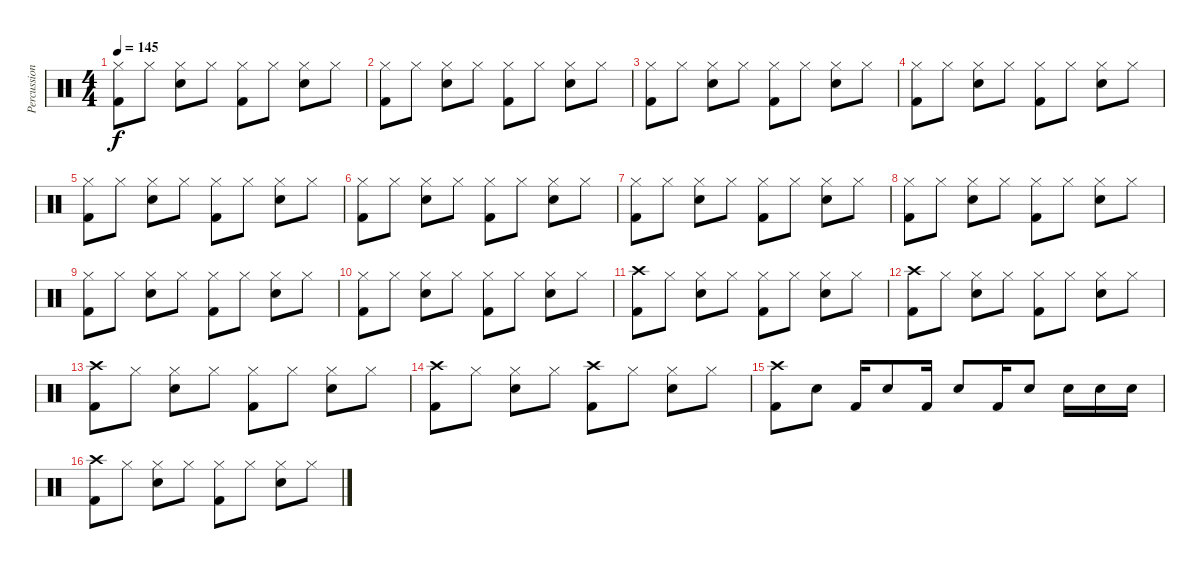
\track ("Percussion" "Percussion") {instrument percussion}
\staff {score}
\articulation defaults
\ts (4 4)
\tempo 145
\clef neutral
\ks c
("Hi-Hat (closed)" "Kick (hit) 2").8{dy f} "Hi-Hat (closed)".8 ("Hi-Hat (closed)" "Snare (hit) 2").8 "Hi-Hat (closed)".8 ("Hi-Hat (closed)" "Kick (hit) 2").8 "Hi-Hat (closed)".8 ("Hi-Hat (closed)" "Snare (hit) 2").8 "Hi-Hat (closed)".8 |
("Hi-Hat (closed)" "Kick (hit) 2").8 "Hi-Hat (closed)".8 ("Hi-Hat (closed)" "Snare (hit) 2").8 "Hi-Hat (closed)".8 ("Hi-Hat (closed)" "Kick (hit) 2").8 "Hi-Hat (closed)".8 ("Hi-Hat (closed)" "Snare (hit) 2").8 "Hi-Hat (closed)".8 |
("Hi-Hat (closed)" "Kick (hit) 2").8 "Hi-Hat (closed)".8 ("Hi-Hat (closed)" "Snare (hit) 2").8 "Hi-Hat (closed)".8 ("Hi-Hat (closed)" "Kick (hit) 2").8 "Hi-Hat (closed)".8 ("Hi-Hat (closed)" "Snare (hit) 2").8 "Hi-Hat (closed)".8 |
("Hi-Hat (closed)" "Kick (hit) 2").8 "Hi-Hat (closed)".8 ("Hi-Hat (closed)" "Snare (hit) 2").8 "Hi-Hat (closed)".8 ("Hi-Hat (closed)" "Kick (hit) 2").8 "Hi-Hat (closed)".8 ("Hi-Hat (closed)" "Snare (hit) 2").8 "Hi-Hat (closed)".8 |
("Hi-Hat (closed)" "Kick (hit) 2").8 "Hi-Hat (closed)".8 ("Hi-Hat (closed)" "Snare (hit) 2").8 "Hi-Hat (closed)".8 ("Hi-Hat (closed)" "Kick (hit) 2").8 "Hi-Hat (closed)".8 ("Hi-Hat (closed)" "Snare (hit) 2").8 "Hi-Hat (closed)".8 |
("Hi-Hat (closed)" "Kick (hit) 2").8 "Hi-Hat (closed)".8 ("Hi-Hat (closed)" "Snare (hit) 2").8 "Hi-Hat (closed)".8 ("Hi-Hat (closed)" "Kick (hit) 2").8 "Hi-Hat (closed)".8 ("Hi-Hat (closed)" "Snare (hit) 2").8 "Hi-Hat (closed)".8 |
("Hi-Hat (closed)" "Kick (hit) 2").8 "Hi-Hat (closed)".8 ("Hi-Hat (closed)" "Snare (hit) 2").8 "Hi-Hat (closed)".8 ("Hi-Hat (closed)" "Kick (hit) 2").8 "Hi-Hat (closed)".8 ("Hi-Hat (closed)" "Snare (hit) 2").8 "Hi-Hat (closed)".8 |
("Hi-Hat (closed)" "Kick (hit) 2").8 "Hi-Hat (closed)".8 ("Hi-Hat (closed)" "Snare (hit) 2").8 "Hi-Hat (closed)".8 ("Hi-Hat (closed)" "Kick (hit) 2").8 "Hi-Hat (closed)".8 ("Hi-Hat (closed)" "Snare (hit) 2").8 "Hi-Hat (closed)".8 |
("Hi-Hat (closed)" "Kick (hit) 2").8 "Hi-Hat (closed)".8 ("Hi-Hat (closed)" "Snare (hit) 2").8 "Hi-Hat (closed)".8 ("Hi-Hat (closed)" "Kick (hit) 2").8 "Hi-Hat (closed)".8 ("Hi-Hat (closed)" "Snare (hit) 2").8 "Hi-Hat (closed)".8 |
("Hi-Hat (closed)" "Kick (hit) 2").8 "Hi-Hat (closed)".8 ("Hi-Hat (closed)" "Snare (hit) 2").8 "Hi-Hat (closed)".8 ("Hi-Hat (closed)" "Kick (hit) 2").8 "Hi-Hat (closed)".8 ("Hi-Hat (closed)" "Snare (hit) 2").8 "Hi-Hat (closed)".8 |
("Crash high (hit)" "Kick (hit) 2").8 "Hi-Hat (closed)".8 ("Hi-Hat (closed)" "Snare (hit) 2").8 "Hi-Hat (closed)".8 ("Hi-Hat (closed)" "Kick (hit) 2").8 "Hi-Hat (closed)".8 ("Hi-Hat (closed)" "Snare (hit) 2").8 "Hi-Hat (closed)".8 |
("Crash high (hit)" "Kick (hit) 2").8 "Hi-Hat (closed)".8 ("Hi-Hat (closed)" "Snare (hit) 2").8 "Hi-Hat (closed)".8 ("Hi-Hat (closed)" "Kick (hit) 2").8 "Hi-Hat (closed)".8 ("Hi-Hat (closed)" "Snare (hit) 2").8 "Hi-Hat (closed)".8 |
("Crash high (hit)" "Kick (hit) 2").8 "Hi-Hat (closed)".8 ("Hi-Hat (closed)" "Snare (hit) 2").8 "Hi-Hat (closed)".8 ("Hi-Hat (closed)" "Kick (hit) 2").8 "Hi-Hat (closed)".8 ("Hi-Hat (closed)" "Snare (hit) 2").8 "Hi-Hat (closed)".8 |
("Crash high (hit)" "Kick (hit) 2").8 "Hi-Hat (closed)".8 ("Hi-Hat (closed)" "Snare (hit) 2").8 "Hi-Hat (closed)".8 ("Crash high (hit)" "Kick (hit) 2").8 "Hi-Hat (closed)".8 ("Hi-Hat (closed)" "Snare (hit) 2").8 "Hi-Hat (closed)".8 |
("Crash high (hit)" "Kick (hit) 2").8 "Electric Snare (hit)".8 "Kick (hit) 2".16 "Electric Snare (hit)".8 "Kick (hit) 2".16 "Electric Snare (hit)".8 "Kick (hit) 2".16 "Electric Snare (hit)".8 "Electric Snare (hit)".16 "Electric Snare (hit)".16 "Electric Snare (hit)".16 |
("Crash high (hit)" "Kick (hit) 2").8 "Hi-Hat (closed)".8 ("Hi-Hat (closed)" "Snare (hit) 2").8 "Hi-Hat (closed)".8 ("Hi-Hat (closed)" "Kick (hit) 2").8 "Hi-Hat (closed)".8 ("Hi-Hat (closed)" "Snare (hit) 2").8 "Hi-Hat (closed)".8
